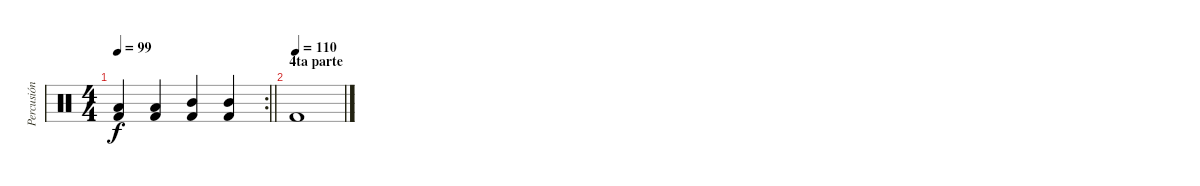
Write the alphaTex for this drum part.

\track ("Percusión" "Percusión") {instrument percussion}
\staff {score}
\articulation defaults
\rc 2
\ts (4 4)
\tempo 99
\clef neutral
\barLineRight lightlight
\ks c
("Low Tom (hit)" "Kick (hit) 2").4{dy f} ("Low Tom (hit)" "Kick (hit) 2").4 ("Mid Tom (hit)" "Kick (hit) 2").4 ("Mid Tom (hit)" "Kick (hit) 2").4 |
\section ("" "4ta parte")
\tempo (110)
"Kick (hit) 2".1
